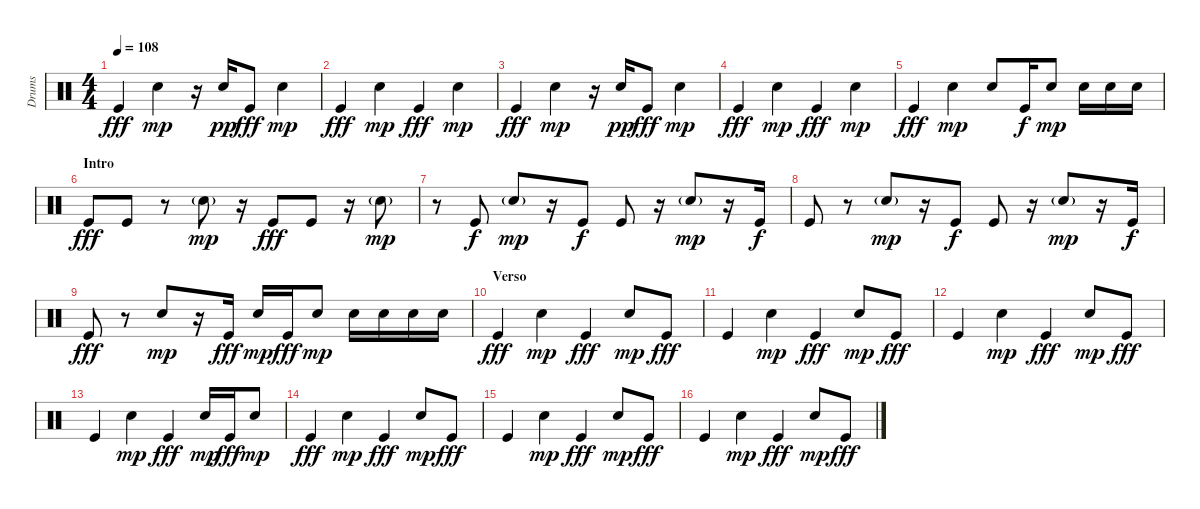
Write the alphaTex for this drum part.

\track ("Drums" "Drums") {instrument percussion}
\staff {score}
\articulation defaults
\ts (4 4)
\tempo 108
\clef neutral
\ks c "Kick (hit)".4{dy fff} "Snare (hit) 2".4{dy mp}
r.16 "Snare (hit) 2".16{dy pp} "Kick (hit)".8{dy fff} "Snare (hit) 2".4{dy mp} |
"Kick (hit)".4{dy fff} "Snare (hit) 2".4{dy mp} "Kick (hit)".4{dy fff} "Snare (hit) 2".4{dy mp} |
"Kick (hit)".4{dy fff} "Snare (hit) 2".4{dy mp} r.16 "Snare (hit) 2".16{dy pp} "Kick (hit)".8{dy fff} "Snare (hit) 2".4{dy mp} |
"Kick (hit)".4{dy fff} "Snare (hit) 2".4{dy mp} "Kick (hit)".4{dy fff} "Snare (hit) 2".4{dy mp} |
"Kick (hit)".4{dy fff} "Snare (hit) 2".4{dy mp} "Snare (hit) 2".8 "Kick (hit)".16{dy f} "Snare (hit) 2".8{dy mp} "Snare (hit) 2".16 "Snare (hit) 2".16 "Snare (hit) 2".16 |
\section ("" "Intro")
"Kick (hit)".8{dy fff} "Kick (hit)".8 r.8 "Electric Snare (hit)"{g}.8{dy mp} r.16 "Kick (hit)".8{dy fff} "Kick (hit)".8 r.16 "Electric Snare (hit)"{g}.8{dy mp} |
r.8 "Kick (hit)".8{dy f} "Electric Snare (hit)"{g}.8{dy mp} r.16 "Kick (hit)".8{dy f} "Kick (hit)".8 r.16 "Electric Snare (hit)"{g}.8{dy mp} r.16 "Kick (hit)".16{dy f} |
"Kick (hit)".8 r.8 "Electric Snare (hit)"{g}.8{dy mp} r.16 "Kick (hit)".8{dy f} "Kick (hit)".8 r.16 "Electric Snare (hit)"{g}.8{dy mp} r.16 "Kick (hit)".16{dy f} |
"Kick (hit)".8{dy fff} r.8 "Snare (hit) 2".8{dy mp} r.16 "Kick (hit)".16{dy fff} "Snare (hit) 2".16{dy mp} "Kick (hit)".16{dy fff} "Snare (hit) 2".8{dy mp} "Snare (hit) 2".16 "Snare (hit) 2".16 "Snare (hit) 2".16 "Snare (hit) 2".16 |
\section ("" "Verso")
"Kick (hit)".4{dy fff} "Snare (hit) 2".4{dy mp} "Kick (hit)".4{dy fff} "Snare (hit) 2".8{dy mp} "Kick (hit)".8{dy fff} |
"Kick (hit)".4 "Snare (hit) 2".4{dy mp} "Kick (hit)".4{dy fff} "Snare (hit) 2".8{dy mp} "Kick (hit)".8{dy fff} |
"Kick (hit)".4 "Snare (hit) 2".4{dy mp} "Kick (hit)".4{dy fff} "Snare (hit) 2".8{dy mp} "Kick (hit)".8{dy fff} |
"Kick (hit)".4 "Snare (hit) 2".4{dy mp} "Kick (hit)".4{dy fff} "Snare (hit) 2".16{dy mp} "Kick (hit)".16{dy fff} "Snare (hit) 2".8{dy mp} |
"Kick (hit)".4{dy fff} "Snare (hit) 2".4{dy mp} "Kick (hit)".4{dy fff} "Snare (hit) 2".8{dy mp} "Kick (hit)".8{dy fff} |
"Kick (hit)".4 "Snare (hit) 2".4{dy mp} "Kick (hit)".4{dy fff} "Snare (hit) 2".8{dy mp} "Kick (hit)".8{dy fff} |
"Kick (hit)".4 "Snare (hit) 2".4{dy mp} "Kick (hit)".4{dy fff} "Snare (hit) 2".8{dy mp} "Kick (hit)".8{dy fff}
